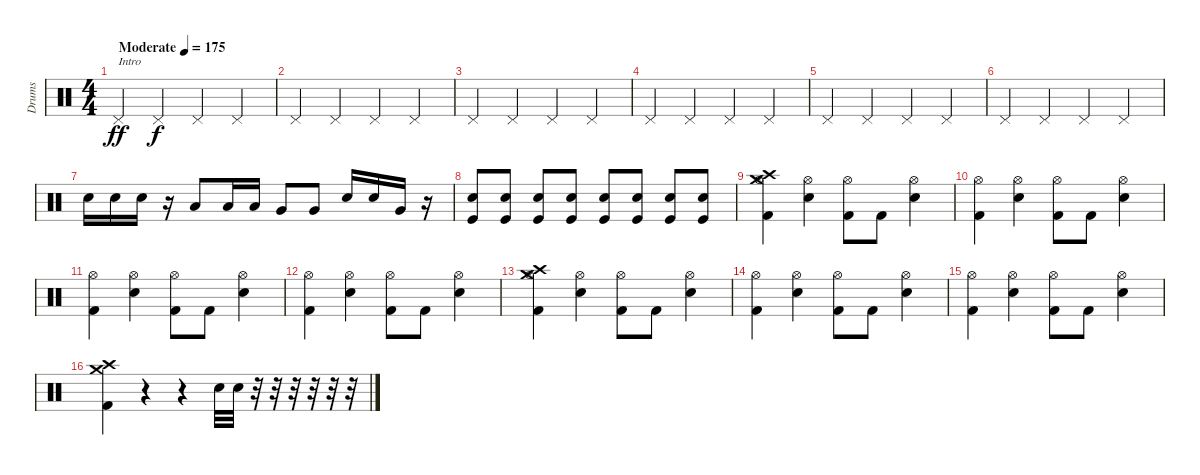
\track ("Drums" "Drums") {instrument percussion}
\staff {score}
\articulation defaults
\ts (4 4)
\tempo (175 "Moderate")
\clef neutral
\ks c "Pedal Hi-Hat (hit)".4{txt "Intro" dy ff} "Pedal Hi-Hat (hit)".4{dy f} "Pedal Hi-Hat (hit)".4 "Pedal Hi-Hat (hit)".4
|
"Pedal Hi-Hat (hit)".4 "Pedal Hi-Hat (hit)".4 "Pedal Hi-Hat (hit)".4 "Pedal Hi-Hat (hit)".4 |
"Pedal Hi-Hat (hit)".4 "Pedal Hi-Hat (hit)".4 "Pedal Hi-Hat (hit)".4 "Pedal Hi-Hat (hit)".4 |
"Pedal Hi-Hat (hit)".4 "Pedal Hi-Hat (hit)".4 "Pedal Hi-Hat (hit)".4 "Pedal Hi-Hat (hit)".4 |
"Pedal Hi-Hat (hit)".4 "Pedal Hi-Hat (hit)".4 "Pedal Hi-Hat (hit)".4 "Pedal Hi-Hat (hit)".4 |
"Pedal Hi-Hat (hit)".4 "Pedal Hi-Hat (hit)".4 "Pedal Hi-Hat (hit)".4 "Pedal Hi-Hat (hit)".4 |
"Electric Snare (hit)".16 "Electric Snare (hit)".16 "Electric Snare (hit)".16 r.16 "Low Tom (hit)".8 "Low Tom (hit)".16 "Low Tom (hit)".16 "Very Low Tom (hit)".8 "Very Low Tom (hit)".8 "Electric Snare (hit)".16 "Electric Snare (hit)".16 "Very Low Tom (hit)".16 r.16 |
("Electric Snare (hit)" "Kick (hit)").8 ("Electric Snare (hit)" "Kick (hit)").8 ("Electric Snare (hit)" "Kick (hit)").8 ("Electric Snare (hit)" "Kick (hit)").8 ("Electric Snare (hit)" "Kick (hit)").8 ("Electric Snare (hit)" "Kick (hit)").8 ("Electric Snare (hit)" "Kick (hit)").8 ("Electric Snare (hit)" "Kick (hit)").8 |
("Crash high (hit)" "Hi-Hat (open)" "Crash medium (hit)" "Kick (hit) 2").4 ("Hi-Hat (open)" "Electric Snare (hit)").4 ("Hi-Hat (open)" "Kick (hit) 2").8 "Kick (hit) 2".8 ("Hi-Hat (open)" "Electric Snare (hit)").4 |
("Hi-Hat (open)" "Kick (hit) 2").4 ("Hi-Hat (open)" "Electric Snare (hit)").4 ("Hi-Hat (open)" "Kick (hit) 2").8 "Kick (hit) 2".8 ("Hi-Hat (open)" "Electric Snare (hit)").4 |
("Hi-Hat (open)" "Kick (hit) 2").4 ("Hi-Hat (open)" "Electric Snare (hit)").4 ("Hi-Hat (open)" "Kick (hit) 2").8 "Kick (hit) 2".8 ("Hi-Hat (open)" "Electric Snare (hit)").4 |
("Hi-Hat (open)" "Kick (hit) 2").4 ("Hi-Hat (open)" "Electric Snare (hit)").4 ("Hi-Hat (open)" "Kick (hit) 2").8 "Kick (hit) 2".8 ("Hi-Hat (open)" "Electric Snare (hit)").4 |
("Hi-Hat (open)" "Crash high (hit)" "Crash medium (hit)" "Kick (hit) 2").4 ("Hi-Hat (open)" "Electric Snare (hit)").4 ("Hi-Hat (open)" "Kick (hit) 2").8 "Kick (hit) 2".8 ("Hi-Hat (open)" "Electric Snare (hit)").4 |
("Hi-Hat (open)" "Kick (hit) 2").4 ("Hi-Hat (open)" "Electric Snare (hit)").4 ("Hi-Hat (open)" "Kick (hit) 2").8 "Kick (hit) 2".8 ("Hi-Hat (open)" "Electric Snare (hit)").4 |
("Hi-Hat (open)" "Kick (hit) 2").4 ("Hi-Hat (open)" "Electric Snare (hit)").4 ("Hi-Hat (open)" "Kick (hit) 2").8 "Kick (hit) 2".8 ("Hi-Hat (open)" "Electric Snare (hit)").4 |
("Crash medium (hit)" "Crash high (hit)" "Kick (hit) 2").4 r.4 r.4 "Electric Snare (hit)".32 "Electric Snare (hit)".32 r.32 r.32 r.32 r.32 r.32 r.32
